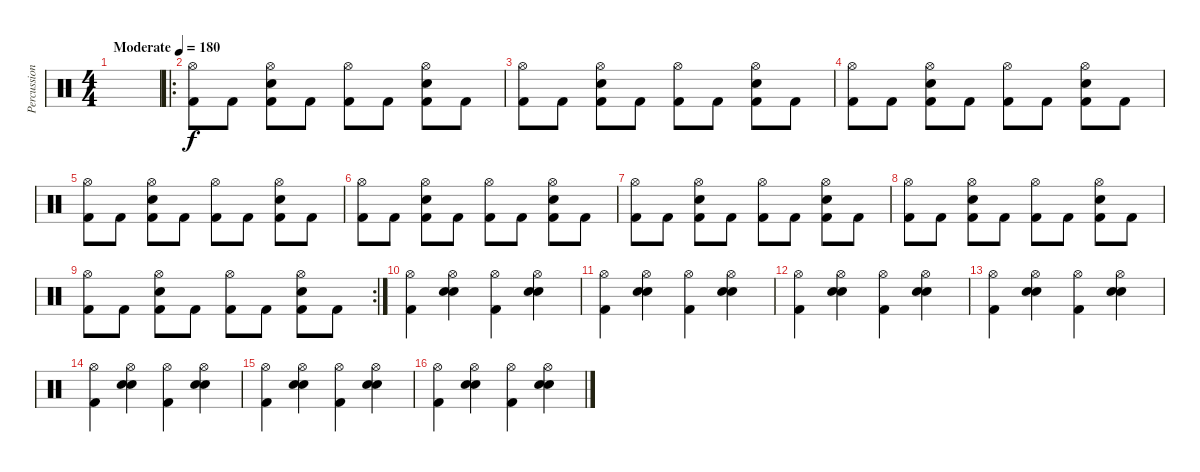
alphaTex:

\track ("Percussion" "Percussion") {instrument percussion}
\staff {score}
\articulation defaults
\ts (4 4)
\tempo (180 "Moderate")
\clef neutral
\ks c
|
\ro
("Hi-Hat (open)" "Kick (hit) 2").8 "Kick (hit) 2".8 ("Hi-Hat (open)" "Snare (hit) 2" "Kick (hit) 2").8 "Kick (hit) 2".8 ("Hi-Hat (open)" "Kick (hit) 2").8 "Kick (hit) 2".8 ("Hi-Hat (open)" "Snare (hit) 2" "Kick (hit) 2").8 "Kick (hit) 2".8 |
("Hi-Hat (open)" "Kick (hit) 2").8 "Kick (hit) 2".8 ("Hi-Hat (open)" "Snare (hit) 2" "Kick (hit) 2").8 "Kick (hit) 2".8 ("Hi-Hat (open)" "Kick (hit) 2").8 "Kick (hit) 2".8 ("Hi-Hat (open)" "Snare (hit) 2" "Kick (hit) 2").8 "Kick (hit) 2".8 |
("Hi-Hat (open)" "Kick (hit) 2").8 "Kick (hit) 2".8 ("Hi-Hat (open)" "Snare (hit) 2" "Kick (hit) 2").8 "Kick (hit) 2".8 ("Hi-Hat (open)" "Kick (hit) 2").8 "Kick (hit) 2".8 ("Hi-Hat (open)" "Snare (hit) 2" "Kick (hit) 2").8 "Kick (hit) 2".8 |
("Hi-Hat (open)" "Kick (hit) 2").8 "Kick (hit) 2".8 ("Hi-Hat (open)" "Snare (hit) 2" "Kick (hit) 2").8 "Kick (hit) 2".8 ("Hi-Hat (open)" "Kick (hit) 2").8 "Kick (hit) 2".8 ("Hi-Hat (open)" "Snare (hit) 2" "Kick (hit) 2").8 "Kick (hit) 2".8 |
("Hi-Hat (open)" "Kick (hit) 2").8 "Kick (hit) 2".8 ("Hi-Hat (open)" "Snare (hit) 2" "Kick (hit) 2").8 "Kick (hit) 2".8 ("Hi-Hat (open)" "Kick (hit) 2").8 "Kick (hit) 2".8 ("Hi-Hat (open)" "Snare (hit) 2" "Kick (hit) 2").8 "Kick (hit) 2".8 |
("Hi-Hat (open)" "Kick (hit) 2").8 "Kick (hit) 2".8 ("Hi-Hat (open)" "Snare (hit) 2" "Kick (hit) 2").8 "Kick (hit) 2".8 ("Hi-Hat (open)" "Kick (hit) 2").8 "Kick (hit) 2".8 ("Hi-Hat (open)" "Snare (hit) 2" "Kick (hit) 2").8 "Kick (hit) 2".8 |
("Hi-Hat (open)" "Kick (hit) 2").8 "Kick (hit) 2".8 ("Hi-Hat (open)" "Snare (hit) 2" "Kick (hit) 2").8 "Kick (hit) 2".8 ("Hi-Hat (open)" "Kick (hit) 2").8 "Kick (hit) 2".8 ("Hi-Hat (open)" "Snare (hit) 2" "Kick (hit) 2").8 "Kick (hit) 2".8 |
\rc 2
("Hi-Hat (open)" "Kick (hit) 2").8 "Kick (hit) 2".8 ("Hi-Hat (open)" "Snare (hit) 2" "Kick (hit) 2").8 "Kick (hit) 2".8 ("Hi-Hat (open)" "Kick (hit) 2").8 "Kick (hit) 2".8 ("Hi-Hat (open)" "Snare (hit) 2" "Kick (hit) 2").8 "Kick (hit) 2".8 |
("Hi-Hat (open)" "Kick (hit) 2").4 ("Hi-Hat (open)" "Snare (hit) 2" "Snare (hit) 2").4 ("Hi-Hat (open)" "Kick (hit) 2").4 ("Hi-Hat (open)" "Snare (hit) 2" "Snare (hit) 2").4 |
("Hi-Hat (open)" "Kick (hit) 2").4 ("Hi-Hat (open)" "Snare (hit) 2" "Snare (hit) 2").4 ("Hi-Hat (open)" "Kick (hit) 2").4 ("Hi-Hat (open)" "Snare (hit) 2" "Snare (hit) 2").4 |
("Hi-Hat (open)" "Kick (hit) 2").4 ("Hi-Hat (open)" "Snare (hit) 2" "Snare (hit) 2").4 ("Hi-Hat (open)" "Kick (hit) 2").4 ("Hi-Hat (open)" "Snare (hit) 2" "Snare (hit) 2").4 |
("Hi-Hat (open)" "Kick (hit) 2").4 ("Hi-Hat (open)" "Snare (hit) 2" "Snare (hit) 2").4 ("Hi-Hat (open)" "Kick (hit) 2").4 ("Hi-Hat (open)" "Snare (hit) 2" "Snare (hit) 2").4 |
("Hi-Hat (open)" "Kick (hit) 2").4 ("Hi-Hat (open)" "Snare (hit) 2" "Snare (hit) 2").4 ("Hi-Hat (open)" "Kick (hit) 2").4 ("Hi-Hat (open)" "Snare (hit) 2" "Snare (hit) 2").4 |
("Hi-Hat (open)" "Kick (hit) 2").4 ("Hi-Hat (open)" "Snare (hit) 2" "Snare (hit) 2").4 ("Hi-Hat (open)" "Kick (hit) 2").4 ("Hi-Hat (open)" "Snare (hit) 2" "Snare (hit) 2").4 |
("Hi-Hat (open)" "Kick (hit) 2").4 ("Hi-Hat (open)" "Snare (hit) 2" "Snare (hit) 2").4 ("Hi-Hat (open)" "Kick (hit) 2").4 ("Hi-Hat (open)" "Snare (hit) 2" "Snare (hit) 2").4
